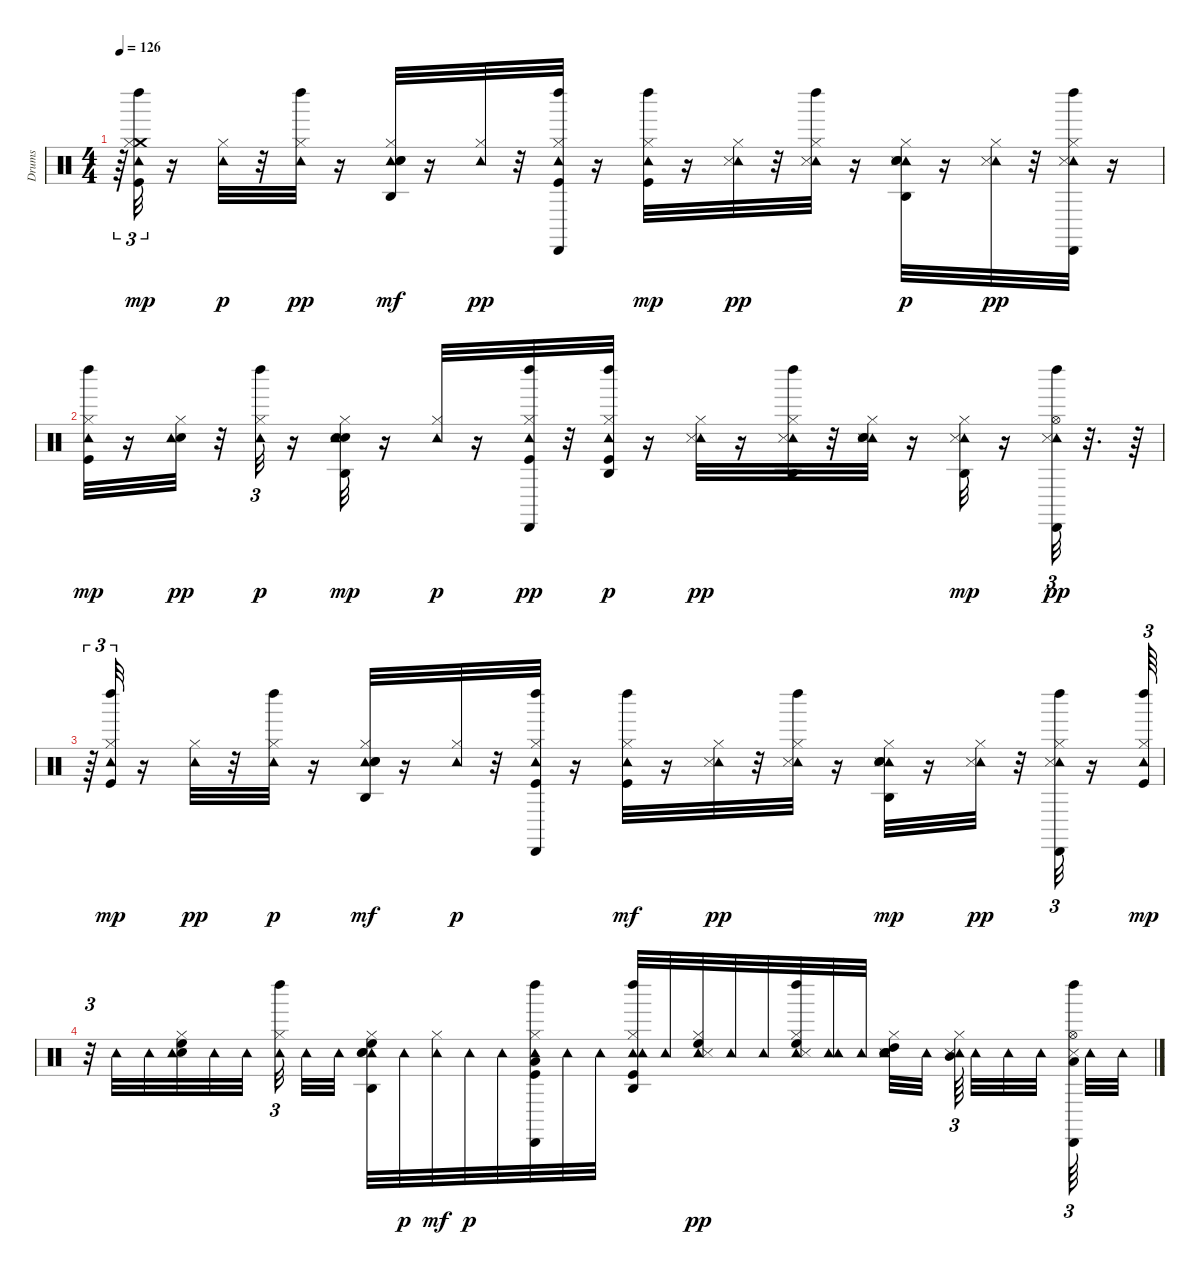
\track ("Drums" "Drums") {instrument percussion}
\staff {score}
\articulation defaults
\ts (4 4)
\tempo 126
\clef neutral
\ks c
r.64{tu (3 2) dy pp} ("Crash medium (hit)" "Kick (hit)" "Hi-Hat (closed)" "Left Maraca (hit)" "Tambourine (hit)").32{tu (3 2) dy mp} r.16 ("Hi-Hat (closed)" "Tambourine (hit)").32{dy p} r.32 ("Hi-Hat (closed)" "Tambourine (hit)" "Left Maraca (hit)").32{dy pp} r.16 ("Hi-Hat (closed)" "Tambourine (hit)" "Agogo high (hit)" "Snare (hit) 2" "Hand Clap (hit)").32{dy mf} r.16 ("Hi-Hat (closed)" "Tambourine (hit)").32{dy pp} r.32 ("Cabasa (hit)" "Kick (hit)" "Hi-Hat (closed)" "Tambourine (hit)" "Left Maraca (hit)").32 r.16 ("Hi-Hat (closed)" "Tambourine (hit)" "Kick (hit)" "Left Maraca (hit)").32{dy mp} r.16 ("Hi-Hat (closed)" "Tambourine (hit)" "Snare (side stick) 3").32{dy pp} r.32 ("Hi-Hat (closed)" "Left Maraca (hit)" "Tambourine (hit)" "Snare (side stick) 3").32 r.16 ("Hi-Hat (closed)" "Tambourine (hit)" "Hand Clap (hit)" "Snare (hit) 2" "Snare (side stick) 3" "Agogo high (hit)").32{dy p} r.16 ("Hi-Hat (closed)" "Tambourine (hit)" "Snare (side stick) 3").32{dy pp} r.32 ("Cabasa (hit)" "Hi-Hat (closed)" "Left Maraca (hit)" "Tambourine (hit)" "Snare (side stick) 3").32 r.16 |
("Tambourine (hit)" "Kick (hit)" "Hi-Hat (closed)" "Left Maraca (hit)").32{dy mp} r.16 ("Electric Snare (hit)" "Hi-Hat (closed)" "Tambourine (hit)").32{dy pp} r.32 ("Left Maraca (hit)" "Hi-Hat (closed)" "Tambourine (hit)").32{tu (3 2) dy p} r.16 ("Snare (hit) 2" "Hi-Hat (closed)" "Tambourine (hit)" "Agogo high (hit)" "Hand Clap (hit)").32{dy mp} r.16 ("Hi-Hat (closed)" "Tambourine (hit)").32{dy p} r.16 ("Kick (hit)" "Hi-Hat (closed)" "Left Maraca (hit)" "Tambourine (hit)" "Cabasa (hit)").32{dy pp} r.32 ("Tambourine (hit)" "Kick (hit)" "Hi-Hat (closed)" "Left Maraca (hit)" "Agogo high (hit)").32{dy p} r.16 ("Hi-Hat (closed)" "Tambourine (hit)" "Snare (side stick) 3").32{dy pp} r.16 ("Hi-Hat (closed)" "Left Maraca (hit)" "Tambourine (hit)" "Agogo high (hit)" "Snare (side stick) 3").32 r.32 ("Hi-Hat (closed)" "Tambourine (hit)" "Hand Clap (hit)" "Snare (hit) 2" "Snare (side stick) 3").32 r.16 ("Hi-Hat (closed)" "Tambourine (hit)" "Snare (side stick) 3" "Agogo high (hit)").32{dy mp} r.16 ("Hi-Hat (open)" "Left Maraca (hit)" "Tambourine (hit)" "Cabasa (hit)" "Snare (side stick) 3").32{tu (3 2) dy pp} r.32{d} r.64 |
r.64{tu (3 2)} ("Kick (hit)" "Hi-Hat (closed)" "Left Maraca (hit)" "Tambourine (hit)").32{tu (3 2) dy mp} r.16 ("Hi-Hat (closed)" "Tambourine (hit)").32{dy pp} r.32 ("Hi-Hat (closed)" "Tambourine (hit)" "Left Maraca (hit)").32{dy p} r.16 ("Hi-Hat (closed)" "Tambourine (hit)" "Agogo high (hit)" "Snare (hit) 2" "Hand Clap (hit)").32{dy mf} r.16 ("Hi-Hat (closed)" "Tambourine (hit)").32{dy p} r.32 ("Cabasa (hit)" "Kick (hit)" "Hi-Hat (closed)" "Tambourine (hit)" "Left Maraca (hit)").32 r.16 ("Hi-Hat (closed)" "Tambourine (hit)" "Kick (hit)" "Left Maraca (hit)").32{dy mf} r.16 ("Hi-Hat (closed)" "Tambourine (hit)" "Snare (side stick) 3").32{dy pp} r.32 ("Hi-Hat (closed)" "Left Maraca (hit)" "Tambourine (hit)" "Snare (side stick) 3").32 r.16 ("Hi-Hat (closed)" "Tambourine (hit)" "Hand Clap (hit)" "Snare (hit) 2" "Snare (side stick) 3" "Agogo high (hit)").32{dy mp} r.16 ("Hi-Hat (closed)" "Tambourine (hit)" "Snare (side stick) 3").32{dy pp} r.32 ("Cabasa (hit)" "Hi-Hat (closed)" "Left Maraca (hit)" "Tambourine (hit)" "Snare (side stick) 3").32{tu (3 2)} r.16 ("Kick (hit)" "Hi-Hat (closed)" "Left Maraca (hit)" "Tambourine (hit)").64{tu (3 2) dy mp} |
r.32{tu (3 2)} "Tambourine (hit)".32 "Tambourine (hit)".32 ("Electric Snare (hit)" "Hi-Hat (closed)" "High Floor Tom (hit)" "Tambourine (hit)").32 "Tambourine (hit)".32 "Tambourine (hit)".32{beam splitsecondary} ("Left Maraca (hit)" "Tambourine (hit)" "Hi-Hat (closed)").32{tu (3 2) beam splitsecondary} "Tambourine (hit)".32 "Tambourine (hit)".32 ("Tambourine (hit)" "Snare (hit) 2" "Hi-Hat (closed)" "High Floor Tom (hit)" "Agogo high (hit)" "Hand Clap (hit)").32 "Tambourine (hit)".32{dy p} ("Tambourine (hit)" "Hi-Hat (closed)").32{dy mf} "Tambourine (hit)".32{dy p} "Tambourine (hit)".32 ("Kick (hit)" "Hi-Hat (closed)" "Low Tom (hit)" "Left Maraca (hit)" "Tambourine (hit)" "Cabasa (hit)").32 "Tambourine (hit)".32 "Tambourine (hit)".32 ("Tambourine (hit)" "Kick (hit)" "Hi-Hat (closed)" "Left Maraca (hit)" "Agogo high (hit)" "Tambourine (hit)").32 "Tambourine (hit)".32 ("Tambourine (hit)" "Hi-Hat (closed)" "High Floor Tom (hit)" "Snare (side stick) 3").32{dy pp} "Tambourine (hit)".32 "Tambourine (hit)".32 ("Tambourine (hit)" "Hi-Hat (closed)" "Left Maraca (hit)" "High Floor Tom (hit)" "Snare (side stick) 3").32 ("Tambourine (hit)" "Tambourine (hit)").32 "Tambourine (hit)".32 ("Hi-Hat (closed)" "High Tom (hit)" "Hand Clap (hit)" "Snare (hit) 2" "Snare (side stick) 3" "Tambourine (hit)").32 "Tambourine (hit)".32{beam splitsecondary} ("Tambourine (hit)" "Hi-Hat (closed)" "Mid Tom (hit)" "Snare (side stick) 3").64{tu (3 2) beam splitsecondary} "Tambourine (hit)".32 "Tambourine (hit)".32 "Tambourine (hit)".32{beam splitsecondary} ("Low Tom (hit)" "Hi-Hat (open)" "Left Maraca (hit)" "Cabasa (hit)" "Snare (side stick) 3").64{tu (3 2) beam splitsecondary} "Tambourine (hit)".32 "Tambourine (hit)".32
